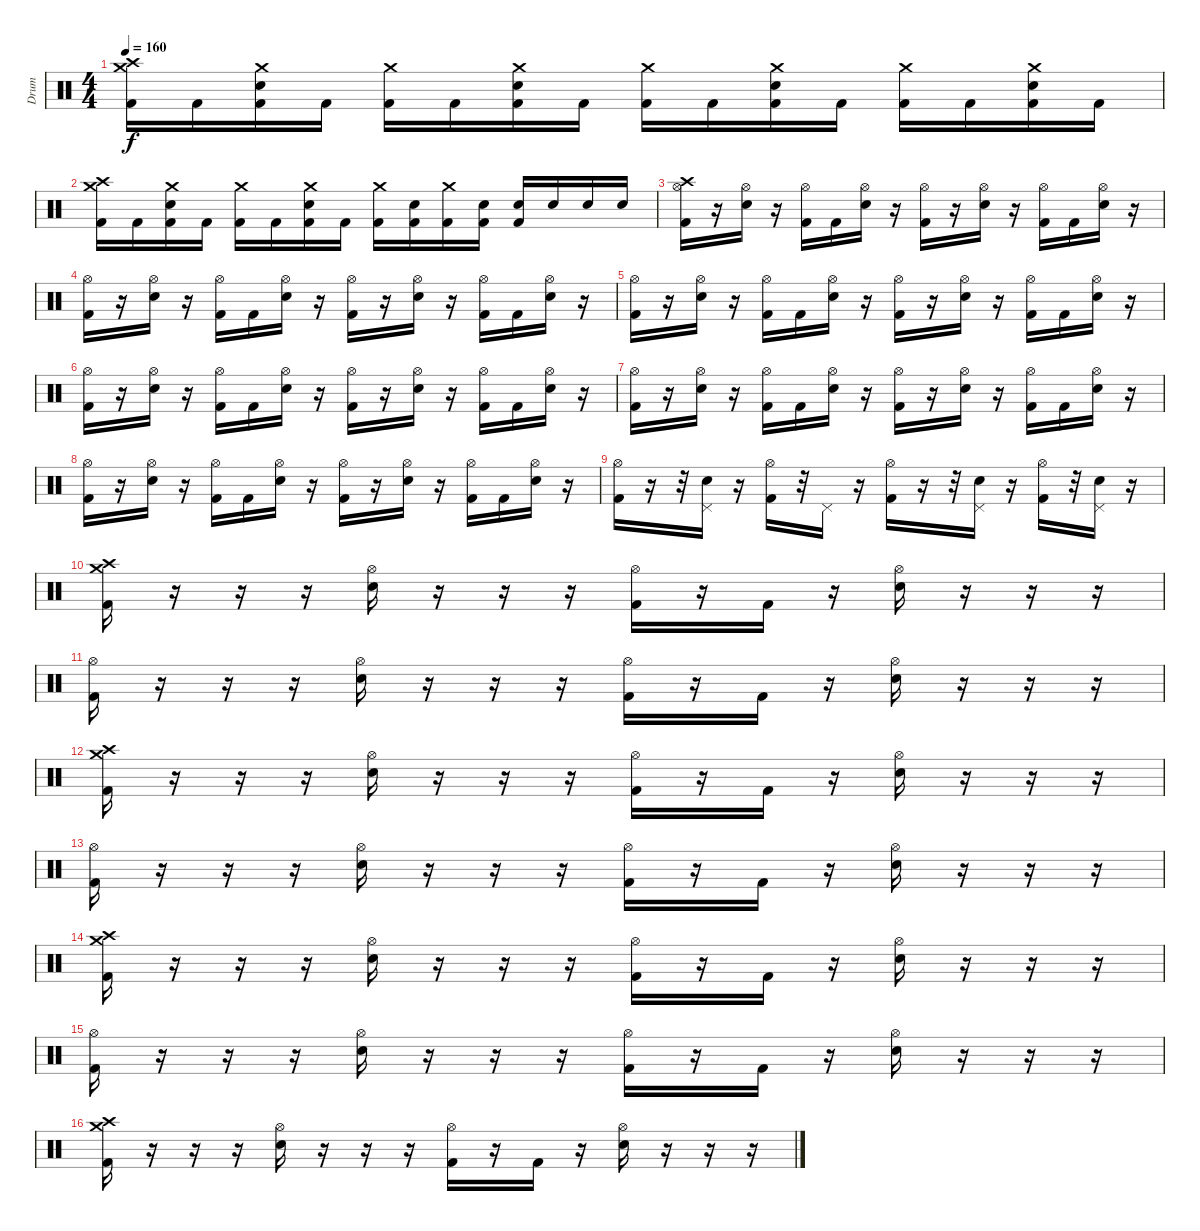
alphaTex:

\track ("Drum" "Drum") {instrument percussion}
\staff {score}
\articulation defaults
\ts (4 4)
\tempo 160
\clef neutral
\ks c
("Crash high (hit)" "Crash medium (hit)" "Kick (hit) 2").16{dy f} "Kick (hit) 2".16 ("Crash medium (hit)" "Kick (hit) 2" "Electric Snare (hit)").16 "Kick (hit) 2".16 ("Crash medium (hit)" "Kick (hit) 2").16 "Kick (hit) 2".16 ("Crash medium (hit)" "Kick (hit) 2" "Electric Snare (hit)").16 "Kick (hit) 2".16 ("Crash medium (hit)" "Kick (hit) 2").16 "Kick (hit) 2".16 ("Crash medium (hit)" "Kick (hit) 2" "Electric Snare (hit)").16 "Kick (hit) 2".16 ("Crash medium (hit)" "Kick (hit) 2").16 "Kick (hit) 2".16 ("Crash medium (hit)" "Kick (hit) 2" "Electric Snare (hit)").16 "Kick (hit) 2".16 |
("Crash high (hit)" "Crash medium (hit)" "Kick (hit) 2").16 "Kick (hit) 2".16 ("Crash medium (hit)" "Kick (hit) 2" "Electric Snare (hit)").16 "Kick (hit) 2".16 ("Crash medium (hit)" "Kick (hit) 2").16 "Kick (hit) 2".16 ("Crash medium (hit)" "Kick (hit) 2" "Electric Snare (hit)").16 "Kick (hit) 2".16 ("Crash medium (hit)" "Kick (hit) 2").16 ("Kick (hit) 2" "Electric Snare (hit)").16 ("Crash medium (hit)" "Kick (hit) 2").16 ("Kick (hit) 2" "Electric Snare (hit)").16 ("Kick (hit) 2" "Electric Snare (hit)").16 "Electric Snare (hit)".16 "Electric Snare (hit)".16 "Electric Snare (hit)".16 |
("Crash high (hit)" "Hi-Hat (open)" "Kick (hit) 2").16 r.16 ("Hi-Hat (open)" "Electric Snare (hit)").16 r.16 ("Hi-Hat (open)" "Kick (hit) 2").16 "Kick (hit) 2".16 ("Hi-Hat (open)" "Electric Snare (hit)").16 r.16 ("Hi-Hat (open)" "Kick (hit) 2").16 r.16 ("Hi-Hat (open)" "Electric Snare (hit)").16 r.16 ("Hi-Hat (open)" "Kick (hit) 2").16 "Kick (hit) 2".16 ("Hi-Hat (open)" "Electric Snare (hit)").16 r.16 |
("Hi-Hat (open)" "Kick (hit) 2").16 r.16 ("Hi-Hat (open)" "Electric Snare (hit)").16 r.16 ("Hi-Hat (open)" "Kick (hit) 2").16 "Kick (hit) 2".16 ("Hi-Hat (open)" "Electric Snare (hit)").16 r.16 ("Hi-Hat (open)" "Kick (hit) 2").16 r.16 ("Hi-Hat (open)" "Electric Snare (hit)").16 r.16 ("Hi-Hat (open)" "Kick (hit) 2").16 "Kick (hit) 2".16 ("Hi-Hat (open)" "Electric Snare (hit)").16 r.16 |
("Hi-Hat (open)" "Kick (hit) 2").16 r.16 ("Hi-Hat (open)" "Electric Snare (hit)").16 r.16 ("Hi-Hat (open)" "Kick (hit) 2").16 "Kick (hit) 2".16 ("Hi-Hat (open)" "Electric Snare (hit)").16 r.16 ("Hi-Hat (open)" "Kick (hit) 2").16 r.16 ("Hi-Hat (open)" "Electric Snare (hit)").16 r.16 ("Hi-Hat (open)" "Kick (hit) 2").16 "Kick (hit) 2".16 ("Hi-Hat (open)" "Electric Snare (hit)").16 r.16 |
("Hi-Hat (open)" "Kick (hit) 2").16 r.16 ("Hi-Hat (open)" "Electric Snare (hit)").16 r.16 ("Hi-Hat (open)" "Kick (hit) 2").16 "Kick (hit) 2".16 ("Hi-Hat (open)" "Electric Snare (hit)").16 r.16 ("Hi-Hat (open)" "Kick (hit) 2").16 r.16 ("Hi-Hat (open)" "Electric Snare (hit)").16 r.16 ("Hi-Hat (open)" "Kick (hit) 2").16 "Kick (hit) 2".16 ("Hi-Hat (open)" "Electric Snare (hit)").16 r.16 |
("Hi-Hat (open)" "Kick (hit) 2").16 r.16 ("Hi-Hat (open)" "Electric Snare (hit)").16 r.16 ("Hi-Hat (open)" "Kick (hit) 2").16 "Kick (hit) 2".16 ("Hi-Hat (open)" "Electric Snare (hit)").16 r.16 ("Hi-Hat (open)" "Kick (hit) 2").16 r.16 ("Hi-Hat (open)" "Electric Snare (hit)").16 r.16 ("Hi-Hat (open)" "Kick (hit) 2").16 "Kick (hit) 2".16 ("Hi-Hat (open)" "Electric Snare (hit)").16 r.16 |
("Hi-Hat (open)" "Kick (hit) 2").16 r.16 ("Hi-Hat (open)" "Electric Snare (hit)").16 r.16 ("Hi-Hat (open)" "Kick (hit) 2").16 "Kick (hit) 2".16 ("Hi-Hat (open)" "Electric Snare (hit)").16 r.16 ("Hi-Hat (open)" "Kick (hit) 2").16 r.16 ("Hi-Hat (open)" "Electric Snare (hit)").16 r.16 ("Hi-Hat (open)" "Kick (hit) 2").16 "Kick (hit) 2".16 ("Hi-Hat (open)" "Electric Snare (hit)").16 r.16 |
("Hi-Hat (open)" "Kick (hit) 2").16 r.16 r.32 ("Pedal Hi-Hat (hit)" "Electric Snare (hit)").16 r.16 ("Hi-Hat (open)" "Kick (hit) 2").16 r.32 "Pedal Hi-Hat (hit)".16 r.16 ("Hi-Hat (open)" "Kick (hit) 2").16 r.16 r.32 ("Pedal Hi-Hat (hit)" "Electric Snare (hit)").16 r.16 ("Hi-Hat (open)" "Kick (hit) 2").16 r.32 ("Pedal Hi-Hat (hit)" "Electric Snare (hit)").16 r.16 |
("Crash high (hit)" "Crash medium (hit)" "Kick (hit) 2").16 r.16 r.16 r.16 ("Hi-Hat (open)" "Electric Snare (hit)").16 r.16 r.16 r.16 ("Hi-Hat (open)" "Kick (hit) 2").16 r.16 "Kick (hit) 2".16 r.16 ("Hi-Hat (open)" "Electric Snare (hit)").16 r.16 r.16 r.16 |
("Hi-Hat (open)" "Kick (hit) 2").16 r.16 r.16 r.16 ("Hi-Hat (open)" "Electric Snare (hit)").16 r.16 r.16 r.16 ("Hi-Hat (open)" "Kick (hit) 2").16 r.16 "Kick (hit) 2".16 r.16 ("Hi-Hat (open)" "Electric Snare (hit)").16 r.16 r.16 r.16 |
("Crash high (hit)" "Crash medium (hit)" "Kick (hit) 2").16 r.16 r.16 r.16 ("Hi-Hat (open)" "Electric Snare (hit)").16 r.16 r.16 r.16 ("Hi-Hat (open)" "Kick (hit) 2").16 r.16 "Kick (hit) 2".16 r.16 ("Hi-Hat (open)" "Electric Snare (hit)").16 r.16 r.16 r.16 |
("Hi-Hat (open)" "Kick (hit) 2").16 r.16 r.16 r.16 ("Hi-Hat (open)" "Electric Snare (hit)").16 r.16 r.16 r.16 ("Hi-Hat (open)" "Kick (hit) 2").16 r.16 "Kick (hit) 2".16 r.16 ("Hi-Hat (open)" "Electric Snare (hit)").16 r.16 r.16 r.16 |
("Crash high (hit)" "Crash medium (hit)" "Kick (hit) 2").16 r.16 r.16 r.16 ("Hi-Hat (open)" "Electric Snare (hit)").16 r.16 r.16 r.16 ("Hi-Hat (open)" "Kick (hit) 2").16 r.16 "Kick (hit) 2".16 r.16 ("Hi-Hat (open)" "Electric Snare (hit)").16 r.16 r.16 r.16 |
("Hi-Hat (open)" "Kick (hit) 2").16 r.16 r.16 r.16 ("Hi-Hat (open)" "Electric Snare (hit)").16 r.16 r.16 r.16 ("Hi-Hat (open)" "Kick (hit) 2").16 r.16 "Kick (hit) 2".16 r.16 ("Hi-Hat (open)" "Electric Snare (hit)").16 r.16 r.16 r.16 |
("Crash high (hit)" "Crash medium (hit)" "Kick (hit) 2").16 r.16 r.16 r.16 ("Hi-Hat (open)" "Electric Snare (hit)").16 r.16 r.16 r.16 ("Hi-Hat (open)" "Kick (hit) 2").16 r.16 "Kick (hit) 2".16 r.16 ("Hi-Hat (open)" "Electric Snare (hit)").16 r.16 r.16 r.16
